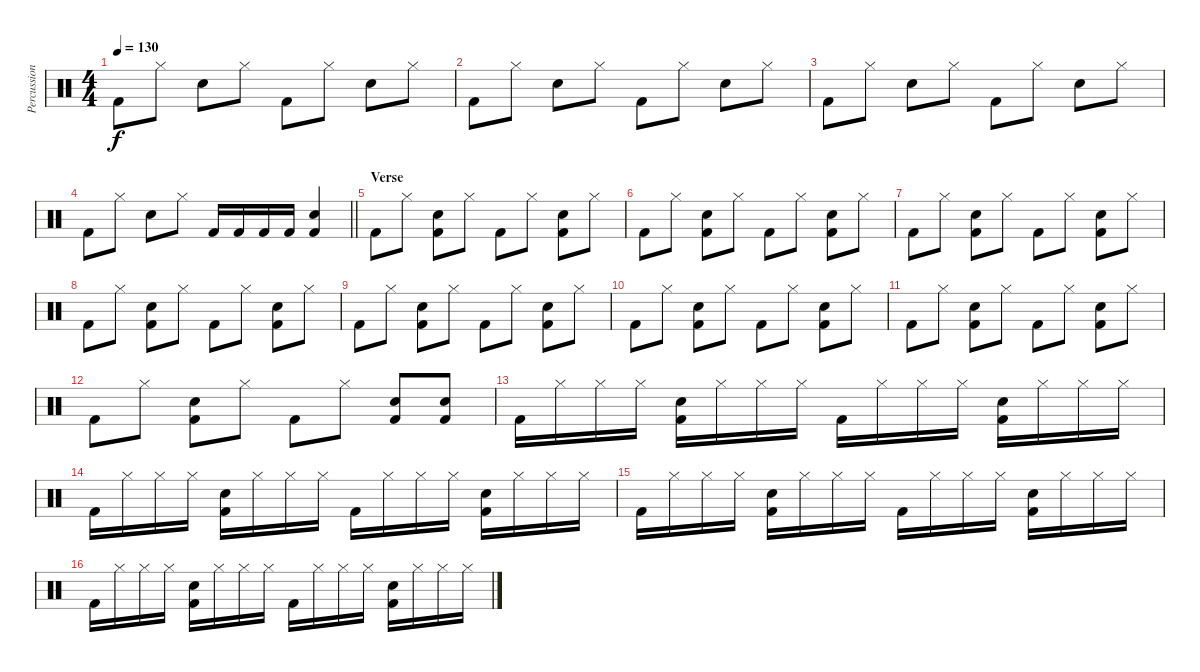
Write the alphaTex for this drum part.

\track ("Percussion" "Percussion") {instrument percussion}
\staff {score}
\articulation defaults
\ts (4 4)
\tempo 130
\clef neutral
\ks c "Kick (hit) 2".8{dy f} "Hi-Hat (closed)".8 "Electric Snare (hit)".8 "Hi-Hat (closed)".8 "Kick (hit) 2".8 "Hi-Hat (closed)".8 "Electric Snare (hit)".8 "Hi-Hat (closed)".8
|
"Kick (hit) 2".8 "Hi-Hat (closed)".8 "Electric Snare (hit)".8 "Hi-Hat (closed)".8 "Kick (hit) 2".8 "Hi-Hat (closed)".8 "Electric Snare (hit)".8 "Hi-Hat (closed)".8 |
"Kick (hit) 2".8 "Hi-Hat (closed)".8 "Electric Snare (hit)".8 "Hi-Hat (closed)".8 "Kick (hit) 2".8 "Hi-Hat (closed)".8 "Electric Snare (hit)".8 "Hi-Hat (closed)".8 |
\barLineRight lightlight "Kick (hit) 2".8 "Hi-Hat (closed)".8 "Electric Snare (hit)".8 "Hi-Hat (closed)".8 "Kick (hit) 2".16 "Kick (hit) 2".16 "Kick (hit) 2".16 "Kick (hit) 2".16
("Electric Snare (hit)" "Kick (hit) 2").4 |
\section ("" "Verse")
"Kick (hit) 2".8 "Hi-Hat (closed)".8 ("Electric Snare (hit)" "Kick (hit) 2").8 "Hi-Hat (closed)".8 "Kick (hit) 2".8 "Hi-Hat (closed)".8 ("Electric Snare (hit)" "Kick (hit) 2").8 "Hi-Hat (closed)".8 |
"Kick (hit) 2".8 "Hi-Hat (closed)".8 ("Electric Snare (hit)" "Kick (hit) 2").8 "Hi-Hat (closed)".8 "Kick (hit) 2".8 "Hi-Hat (closed)".8 ("Electric Snare (hit)" "Kick (hit) 2").8 "Hi-Hat (closed)".8 |
"Kick (hit) 2".8 "Hi-Hat (closed)".8 ("Electric Snare (hit)" "Kick (hit) 2").8 "Hi-Hat (closed)".8 "Kick (hit) 2".8 "Hi-Hat (closed)".8 ("Electric Snare (hit)" "Kick (hit) 2").8 "Hi-Hat (closed)".8 |
"Kick (hit) 2".8 "Hi-Hat (closed)".8 ("Electric Snare (hit)" "Kick (hit) 2").8 "Hi-Hat (closed)".8 "Kick (hit) 2".8 "Hi-Hat (closed)".8 ("Electric Snare (hit)" "Kick (hit) 2").8 "Hi-Hat (closed)".8 |
"Kick (hit) 2".8 "Hi-Hat (closed)".8 ("Electric Snare (hit)" "Kick (hit) 2").8 "Hi-Hat (closed)".8 "Kick (hit) 2".8 "Hi-Hat (closed)".8 ("Electric Snare (hit)" "Kick (hit) 2").8 "Hi-Hat (closed)".8 |
"Kick (hit) 2".8 "Hi-Hat (closed)".8 ("Electric Snare (hit)" "Kick (hit) 2").8 "Hi-Hat (closed)".8 "Kick (hit) 2".8 "Hi-Hat (closed)".8 ("Electric Snare (hit)" "Kick (hit) 2").8 "Hi-Hat (closed)".8 |
"Kick (hit) 2".8 "Hi-Hat (closed)".8 ("Electric Snare (hit)" "Kick (hit) 2").8 "Hi-Hat (closed)".8 "Kick (hit) 2".8 "Hi-Hat (closed)".8 ("Electric Snare (hit)" "Kick (hit) 2").8 "Hi-Hat (closed)".8 |
"Kick (hit) 2".8 "Hi-Hat (closed)".8 ("Electric Snare (hit)" "Kick (hit) 2").8 "Hi-Hat (closed)".8 "Kick (hit) 2".8 "Hi-Hat (closed)".8 ("Electric Snare (hit)" "Kick (hit) 2").8 ("Electric Snare (hit)" "Kick (hit) 2").8 |
"Kick (hit) 2".16 "Hi-Hat (closed)".16 "Hi-Hat (closed)".16 "Hi-Hat (closed)".16 ("Electric Snare (hit)" "Kick (hit) 2").16 "Hi-Hat (closed)".16 "Hi-Hat (closed)".16 "Hi-Hat (closed)".16 "Kick (hit) 2".16 "Hi-Hat (closed)".16 "Hi-Hat (closed)".16 "Hi-Hat (closed)".16 ("Electric Snare (hit)" "Kick (hit) 2").16 "Hi-Hat (closed)".16 "Hi-Hat (closed)".16 "Hi-Hat (closed)".16 |
"Kick (hit) 2".16 "Hi-Hat (closed)".16 "Hi-Hat (closed)".16 "Hi-Hat (closed)".16 ("Electric Snare (hit)" "Kick (hit) 2").16 "Hi-Hat (closed)".16 "Hi-Hat (closed)".16 "Hi-Hat (closed)".16 "Kick (hit) 2".16 "Hi-Hat (closed)".16 "Hi-Hat (closed)".16 "Hi-Hat (closed)".16 ("Electric Snare (hit)" "Kick (hit) 2").16 "Hi-Hat (closed)".16 "Hi-Hat (closed)".16 "Hi-Hat (closed)".16 |
"Kick (hit) 2".16 "Hi-Hat (closed)".16 "Hi-Hat (closed)".16 "Hi-Hat (closed)".16 ("Electric Snare (hit)" "Kick (hit) 2").16 "Hi-Hat (closed)".16 "Hi-Hat (closed)".16 "Hi-Hat (closed)".16 "Kick (hit) 2".16 "Hi-Hat (closed)".16 "Hi-Hat (closed)".16 "Hi-Hat (closed)".16 ("Electric Snare (hit)" "Kick (hit) 2").16 "Hi-Hat (closed)".16 "Hi-Hat (closed)".16 "Hi-Hat (closed)".16 |
"Kick (hit) 2".16 "Hi-Hat (closed)".16 "Hi-Hat (closed)".16 "Hi-Hat (closed)".16 ("Electric Snare (hit)" "Kick (hit) 2").16 "Hi-Hat (closed)".16 "Hi-Hat (closed)".16 "Hi-Hat (closed)".16 "Kick (hit) 2".16 "Hi-Hat (closed)".16 "Hi-Hat (closed)".16 "Hi-Hat (closed)".16 ("Electric Snare (hit)" "Kick (hit) 2").16 "Hi-Hat (closed)".16 "Hi-Hat (closed)".16 "Hi-Hat (closed)".16
